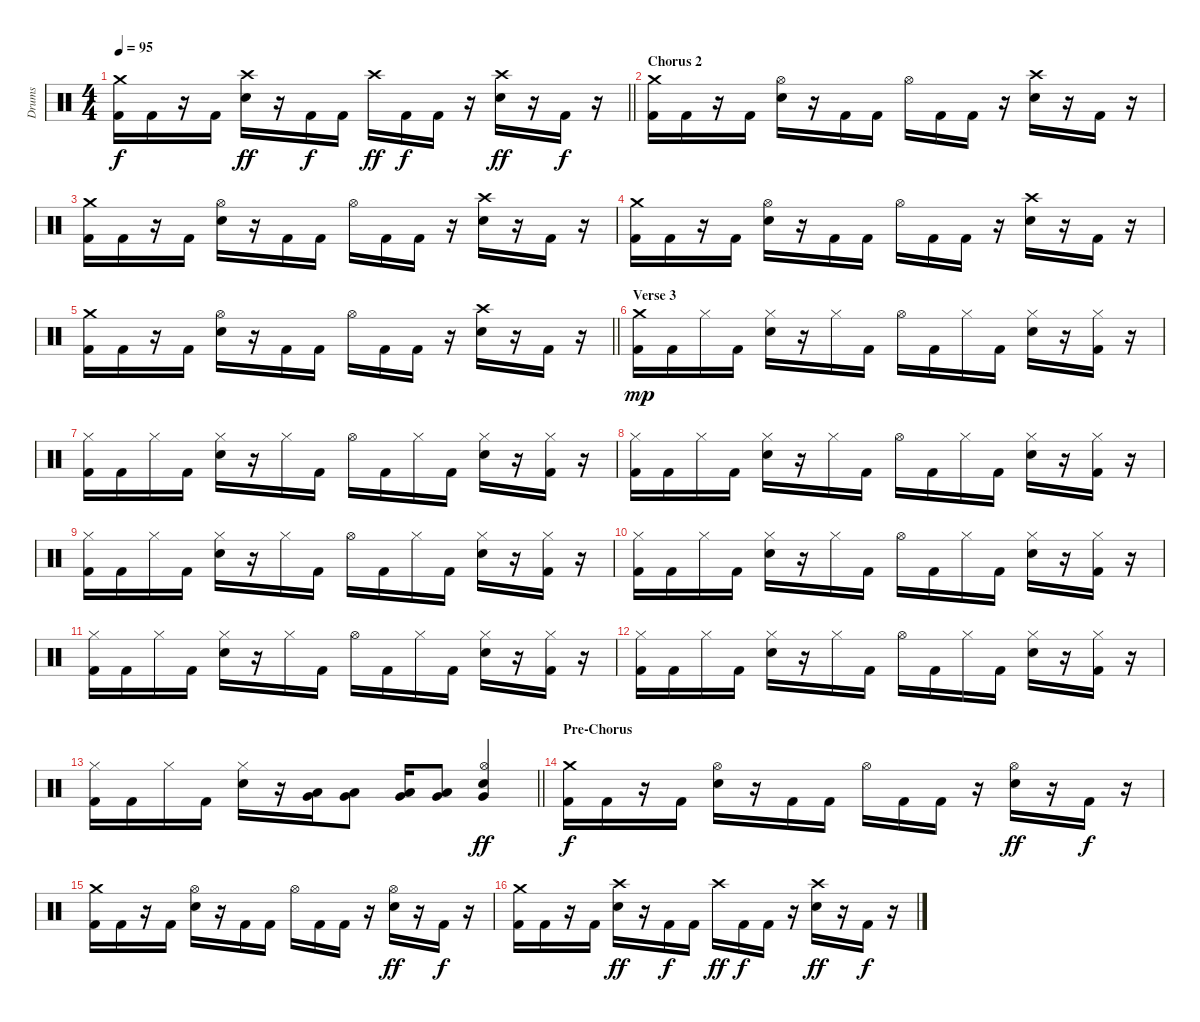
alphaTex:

\track ("Drums" "Drums") {instrument percussion}
\staff {score}
\articulation defaults
\ts (4 4)
\tempo 95
\clef neutral
\barLineRight lightlight
\ks c
("Crash medium (hit)" "Kick (hit) 2").16{dy f} "Kick (hit) 2".16 r.16 "Kick (hit) 2".16 ("Crash high (hit)" "Electric Snare (hit)").16{dy ff} r.16 "Kick (hit) 2".16{dy f} "Kick (hit) 2".16 "Crash high (hit)".16{dy ff} "Kick (hit) 2".16{dy f} "Kick (hit) 2".16 r.16 ("Crash high (hit)" "Electric Snare (hit)").16{dy ff} r.16 "Kick (hit) 2".16{dy f} r.16 |
\section ("" "Chorus 2")
("Crash medium (hit)" "Kick (hit) 2").16 "Kick (hit) 2".16 r.16 "Kick (hit) 2".16 ("Hi-Hat (open)" "Electric Snare (hit)").16 r.16 "Kick (hit) 2".16 "Kick (hit) 2".16 "Hi-Hat (open)".16 "Kick (hit) 2".16 "Kick (hit) 2".16 r.16 ("Crash high (hit)" "Electric Snare (hit)").16 r.16 "Kick (hit) 2".16 r.16 |
("Crash medium (hit)" "Kick (hit) 2").16 "Kick (hit) 2".16 r.16 "Kick (hit) 2".16 ("Hi-Hat (open)" "Electric Snare (hit)").16 r.16 "Kick (hit) 2".16 "Kick (hit) 2".16 "Hi-Hat (open)".16 "Kick (hit) 2".16 "Kick (hit) 2".16 r.16 ("Crash high (hit)" "Electric Snare (hit)").16 r.16 "Kick (hit) 2".16 r.16 |
("Crash medium (hit)" "Kick (hit) 2").16 "Kick (hit) 2".16 r.16 "Kick (hit) 2".16 ("Hi-Hat (open)" "Electric Snare (hit)").16 r.16 "Kick (hit) 2".16 "Kick (hit) 2".16 "Hi-Hat (open)".16 "Kick (hit) 2".16 "Kick (hit) 2".16 r.16 ("Crash high (hit)" "Electric Snare (hit)").16 r.16 "Kick (hit) 2".16 r.16 |
\barLineRight lightlight
("Crash medium (hit)" "Kick (hit) 2").16 "Kick (hit) 2".16 r.16 "Kick (hit) 2".16 ("Hi-Hat (open)" "Electric Snare (hit)").16 r.16 "Kick (hit) 2".16 "Kick (hit) 2".16 "Hi-Hat (open)".16 "Kick (hit) 2".16 "Kick (hit) 2".16 r.16 ("Crash high (hit)" "Electric Snare (hit)").16 r.16 "Kick (hit) 2".16 r.16 |
\section ("" "Verse 3")
("Crash medium (hit)" "Kick (hit) 2").16{dy mp} "Kick (hit) 2".16 "Hi-Hat (closed)".16 "Kick (hit) 2".16 ("Hi-Hat (closed)" "Electric Snare (hit)").16 r.16 "Hi-Hat (closed)".16 "Kick (hit) 2".16 "Hi-Hat (open)".16 "Kick (hit) 2".16 "Hi-Hat (closed)".16 "Kick (hit) 2".16 ("Hi-Hat (closed)" "Electric Snare (hit)").16 r.16 ("Hi-Hat (closed)" "Kick (hit) 2").16 r.16 |
("Hi-Hat (closed)" "Kick (hit) 2").16 "Kick (hit) 2".16 "Hi-Hat (closed)".16 "Kick (hit) 2".16 ("Hi-Hat (closed)" "Electric Snare (hit)").16 r.16 "Hi-Hat (closed)".16 "Kick (hit) 2".16 "Hi-Hat (open)".16 "Kick (hit) 2".16 "Hi-Hat (closed)".16 "Kick (hit) 2".16 ("Hi-Hat (closed)" "Electric Snare (hit)").16 r.16 ("Hi-Hat (closed)" "Kick (hit) 2").16 r.16 |
("Hi-Hat (closed)" "Kick (hit) 2").16 "Kick (hit) 2".16 "Hi-Hat (closed)".16 "Kick (hit) 2".16 ("Hi-Hat (closed)" "Electric Snare (hit)").16 r.16 "Hi-Hat (closed)".16 "Kick (hit) 2".16 "Hi-Hat (open)".16 "Kick (hit) 2".16 "Hi-Hat (closed)".16 "Kick (hit) 2".16 ("Hi-Hat (closed)" "Electric Snare (hit)").16 r.16 ("Hi-Hat (closed)" "Kick (hit) 2").16 r.16 |
("Hi-Hat (closed)" "Kick (hit) 2").16 "Kick (hit) 2".16 "Hi-Hat (closed)".16 "Kick (hit) 2".16 ("Hi-Hat (closed)" "Electric Snare (hit)").16 r.16 "Hi-Hat (closed)".16 "Kick (hit) 2".16 "Hi-Hat (open)".16 "Kick (hit) 2".16 "Hi-Hat (closed)".16 "Kick (hit) 2".16 ("Hi-Hat (closed)" "Electric Snare (hit)").16 r.16 ("Hi-Hat (closed)" "Kick (hit) 2").16 r.16 |
("Hi-Hat (closed)" "Kick (hit) 2").16 "Kick (hit) 2".16 "Hi-Hat (closed)".16 "Kick (hit) 2".16 ("Hi-Hat (closed)" "Electric Snare (hit)").16 r.16 "Hi-Hat (closed)".16 "Kick (hit) 2".16 "Hi-Hat (open)".16 "Kick (hit) 2".16 "Hi-Hat (closed)".16 "Kick (hit) 2".16 ("Hi-Hat (closed)" "Electric Snare (hit)").16 r.16 ("Hi-Hat (closed)" "Kick (hit) 2").16 r.16 |
("Hi-Hat (closed)" "Kick (hit) 2").16 "Kick (hit) 2".16 "Hi-Hat (closed)".16 "Kick (hit) 2".16 ("Hi-Hat (closed)" "Electric Snare (hit)").16 r.16 "Hi-Hat (closed)".16 "Kick (hit) 2".16 "Hi-Hat (open)".16 "Kick (hit) 2".16 "Hi-Hat (closed)".16 "Kick (hit) 2".16 ("Hi-Hat (closed)" "Electric Snare (hit)").16 r.16 ("Hi-Hat (closed)" "Kick (hit) 2").16 r.16 |
("Hi-Hat (closed)" "Kick (hit) 2").16 "Kick (hit) 2".16 "Hi-Hat (closed)".16 "Kick (hit) 2".16 ("Hi-Hat (closed)" "Electric Snare (hit)").16 r.16 "Hi-Hat (closed)".16 "Kick (hit) 2".16 "Hi-Hat (open)".16 "Kick (hit) 2".16 "Hi-Hat (closed)".16 "Kick (hit) 2".16 ("Hi-Hat (closed)" "Electric Snare (hit)").16 r.16 ("Hi-Hat (closed)" "Kick (hit) 2").16 r.16 |
\barLineRight lightlight
("Hi-Hat (closed)" "Kick (hit) 2").16 "Kick (hit) 2".16 "Hi-Hat (closed)".16 "Kick (hit) 2".16 ("Hi-Hat (closed)" "Electric Snare (hit)").16 r.16 ("Low Tom (hit)" "Very Low Tom (hit)").16 ("Low Tom (hit)" "Very Low Tom (hit)").8 ("Low Tom (hit)" "Very Low Tom (hit)").16 ("Low Tom (hit)" "Very Low Tom (hit)").8 ("Hi-Hat (open)" "Very Low Tom (hit)" "Electric Snare (hit)").4{dy ff} |
\section ("" "Pre-Chorus")
("Crash medium (hit)" "Kick (hit) 2").16{dy f} "Kick (hit) 2".16 r.16 "Kick (hit) 2".16 ("Hi-Hat (open)" "Electric Snare (hit)").16 r.16 "Kick (hit) 2".16 "Kick (hit) 2".16 "Hi-Hat (open)".16 "Kick (hit) 2".16 "Kick (hit) 2".16 r.16 ("Hi-Hat (open)" "Electric Snare (hit)").16{dy ff} r.16 "Kick (hit) 2".16{dy f} r.16 |
("Crash medium (hit)" "Kick (hit) 2").16 "Kick (hit) 2".16 r.16 "Kick (hit) 2".16 ("Hi-Hat (open)" "Electric Snare (hit)").16 r.16 "Kick (hit) 2".16 "Kick (hit) 2".16 "Hi-Hat (open)".16 "Kick (hit) 2".16 "Kick (hit) 2".16 r.16 ("Hi-Hat (open)" "Electric Snare (hit)").16{dy ff} r.16 "Kick (hit) 2".16{dy f} r.16 |
("Crash medium (hit)" "Kick (hit) 2").16 "Kick (hit) 2".16 r.16 "Kick (hit) 2".16 ("Crash high (hit)" "Electric Snare (hit)").16{dy ff} r.16 "Kick (hit) 2".16{dy f} "Kick (hit) 2".16 "Crash high (hit)".16{dy ff} "Kick (hit) 2".16{dy f} "Kick (hit) 2".16 r.16 ("Crash high (hit)" "Electric Snare (hit)").16{dy ff} r.16 "Kick (hit) 2".16{dy f} r.16
